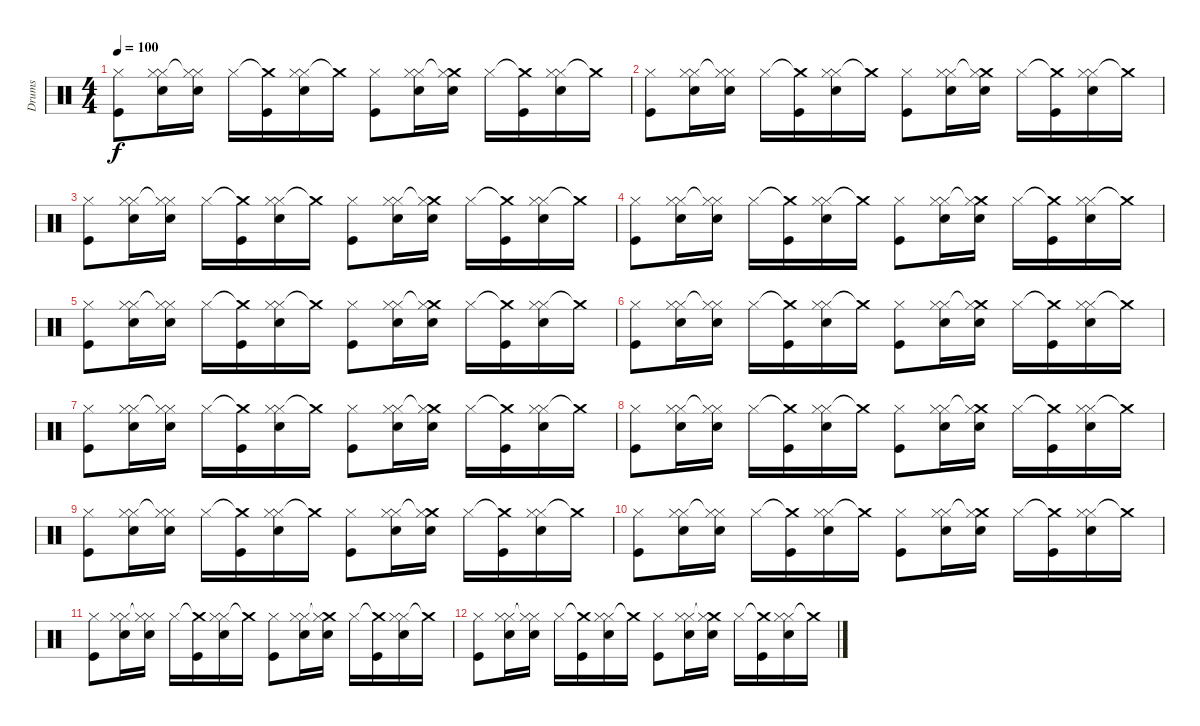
\track ("Drums" "Drums") {instrument percussion}
\staff {score}
\articulation defaults
\ts (4 4)
\tempo 100
\clef neutral
\ks c
("Hi-Hat (closed)" "Kick (hit)").8{dy f} ("Hi-Hat (closed)" "Hi-Hat (closed)" "Snare (hit) 2").16 ("Hi-Hat (closed)"{t} "Hi-Hat (closed)" "Snare (hit) 2").16 "Hi-Hat (closed)".16 ("Crash medium (hit)"{t} "Kick (hit)").16 ("Hi-Hat (closed)" "Hi-Hat (closed)" "Snare (hit) 2").16 "Crash medium (hit)"{t}.16 ("Hi-Hat (closed)" "Kick (hit)").8 ("Hi-Hat (closed)" "Hi-Hat (closed)" "Snare (hit) 2").16 ("Crash medium (hit)"{t} "Hi-Hat (closed)" "Snare (hit) 2").16 "Hi-Hat (closed)".16 ("Crash medium (hit)"{t} "Kick (hit)").16 ("Hi-Hat (closed)" "Hi-Hat (closed)" "Snare (hit) 2").16 "Crash medium (hit)"{t}.16 |
("Hi-Hat (closed)" "Kick (hit)").8 ("Hi-Hat (closed)" "Hi-Hat (closed)" "Snare (hit) 2").16 ("Hi-Hat (closed)"{t} "Hi-Hat (closed)" "Snare (hit) 2").16 "Hi-Hat (closed)".16 ("Crash medium (hit)"{t} "Kick (hit)").16 ("Hi-Hat (closed)" "Hi-Hat (closed)" "Snare (hit) 2").16 "Crash medium (hit)"{t}.16 ("Hi-Hat (closed)" "Kick (hit)").8 ("Hi-Hat (closed)" "Hi-Hat (closed)" "Snare (hit) 2").16 ("Crash medium (hit)"{t} "Hi-Hat (closed)" "Snare (hit) 2").16 "Hi-Hat (closed)".16 ("Crash medium (hit)"{t} "Kick (hit)").16 ("Hi-Hat (closed)" "Hi-Hat (closed)" "Snare (hit) 2").16 "Crash medium (hit)"{t}.16 |
("Hi-Hat (closed)" "Kick (hit)").8 ("Hi-Hat (closed)" "Hi-Hat (closed)" "Snare (hit) 2").16 ("Hi-Hat (closed)"{t} "Hi-Hat (closed)" "Snare (hit) 2").16 "Hi-Hat (closed)".16 ("Crash medium (hit)"{t} "Kick (hit)").16 ("Hi-Hat (closed)" "Hi-Hat (closed)" "Snare (hit) 2").16 "Crash medium (hit)"{t}.16 ("Hi-Hat (closed)" "Kick (hit)").8 ("Hi-Hat (closed)" "Hi-Hat (closed)" "Snare (hit) 2").16 ("Crash medium (hit)"{t} "Hi-Hat (closed)" "Snare (hit) 2").16 "Hi-Hat (closed)".16 ("Crash medium (hit)"{t} "Kick (hit)").16 ("Hi-Hat (closed)" "Hi-Hat (closed)" "Snare (hit) 2").16 "Crash medium (hit)"{t}.16 |
("Hi-Hat (closed)" "Kick (hit)").8 ("Hi-Hat (closed)" "Hi-Hat (closed)" "Snare (hit) 2").16 ("Hi-Hat (closed)"{t} "Hi-Hat (closed)" "Snare (hit) 2").16 "Hi-Hat (closed)".16 ("Crash medium (hit)"{t} "Kick (hit)").16 ("Hi-Hat (closed)" "Hi-Hat (closed)" "Snare (hit) 2").16 "Crash medium (hit)"{t}.16 ("Hi-Hat (closed)" "Kick (hit)").8 ("Hi-Hat (closed)" "Hi-Hat (closed)" "Snare (hit) 2").16 ("Crash medium (hit)"{t} "Hi-Hat (closed)" "Snare (hit) 2").16 "Hi-Hat (closed)".16 ("Crash medium (hit)"{t} "Kick (hit)").16 ("Hi-Hat (closed)" "Hi-Hat (closed)" "Snare (hit) 2").16 "Crash medium (hit)"{t}.16 |
("Hi-Hat (closed)" "Kick (hit)").8 ("Hi-Hat (closed)" "Hi-Hat (closed)" "Snare (hit) 2").16 ("Hi-Hat (closed)"{t} "Hi-Hat (closed)" "Snare (hit) 2").16 "Hi-Hat (closed)".16 ("Crash medium (hit)"{t} "Kick (hit)").16 ("Hi-Hat (closed)" "Hi-Hat (closed)" "Snare (hit) 2").16 "Crash medium (hit)"{t}.16 ("Hi-Hat (closed)" "Kick (hit)").8 ("Hi-Hat (closed)" "Hi-Hat (closed)" "Snare (hit) 2").16 ("Crash medium (hit)"{t} "Hi-Hat (closed)" "Snare (hit) 2").16 "Hi-Hat (closed)".16 ("Crash medium (hit)"{t} "Kick (hit)").16 ("Hi-Hat (closed)" "Hi-Hat (closed)" "Snare (hit) 2").16 "Crash medium (hit)"{t}.16 |
("Hi-Hat (closed)" "Kick (hit)").8 ("Hi-Hat (closed)" "Hi-Hat (closed)" "Snare (hit) 2").16 ("Hi-Hat (closed)"{t} "Hi-Hat (closed)" "Snare (hit) 2").16 "Hi-Hat (closed)".16 ("Crash medium (hit)"{t} "Kick (hit)").16 ("Hi-Hat (closed)" "Hi-Hat (closed)" "Snare (hit) 2").16 "Crash medium (hit)"{t}.16 ("Hi-Hat (closed)" "Kick (hit)").8 ("Hi-Hat (closed)" "Hi-Hat (closed)" "Snare (hit) 2").16 ("Crash medium (hit)"{t} "Hi-Hat (closed)" "Snare (hit) 2").16 "Hi-Hat (closed)".16 ("Crash medium (hit)"{t} "Kick (hit)").16 ("Hi-Hat (closed)" "Hi-Hat (closed)" "Snare (hit) 2").16 "Crash medium (hit)"{t}.16 |
("Hi-Hat (closed)" "Kick (hit)").8 ("Hi-Hat (closed)" "Hi-Hat (closed)" "Snare (hit) 2").16 ("Hi-Hat (closed)"{t} "Hi-Hat (closed)" "Snare (hit) 2").16 "Hi-Hat (closed)".16 ("Crash medium (hit)"{t} "Kick (hit)").16 ("Hi-Hat (closed)" "Hi-Hat (closed)" "Snare (hit) 2").16 "Crash medium (hit)"{t}.16 ("Hi-Hat (closed)" "Kick (hit)").8 ("Hi-Hat (closed)" "Hi-Hat (closed)" "Snare (hit) 2").16 ("Crash medium (hit)"{t} "Hi-Hat (closed)" "Snare (hit) 2").16 "Hi-Hat (closed)".16 ("Crash medium (hit)"{t} "Kick (hit)").16 ("Hi-Hat (closed)" "Hi-Hat (closed)" "Snare (hit) 2").16 "Crash medium (hit)"{t}.16 |
("Hi-Hat (closed)" "Kick (hit)").8 ("Hi-Hat (closed)" "Hi-Hat (closed)" "Snare (hit) 2").16 ("Hi-Hat (closed)"{t} "Hi-Hat (closed)" "Snare (hit) 2").16 "Hi-Hat (closed)".16 ("Crash medium (hit)"{t} "Kick (hit)").16 ("Hi-Hat (closed)" "Hi-Hat (closed)" "Snare (hit) 2").16 "Crash medium (hit)"{t}.16 ("Hi-Hat (closed)" "Kick (hit)").8 ("Hi-Hat (closed)" "Hi-Hat (closed)" "Snare (hit) 2").16 ("Crash medium (hit)"{t} "Hi-Hat (closed)" "Snare (hit) 2").16 "Hi-Hat (closed)".16 ("Crash medium (hit)"{t} "Kick (hit)").16 ("Hi-Hat (closed)" "Hi-Hat (closed)" "Snare (hit) 2").16 "Crash medium (hit)"{t}.16 |
("Hi-Hat (closed)" "Kick (hit)").8 ("Hi-Hat (closed)" "Hi-Hat (closed)" "Snare (hit) 2").16 ("Hi-Hat (closed)"{t} "Hi-Hat (closed)" "Snare (hit) 2").16 "Hi-Hat (closed)".16 ("Crash medium (hit)"{t} "Kick (hit)").16 ("Hi-Hat (closed)" "Hi-Hat (closed)" "Snare (hit) 2").16 "Crash medium (hit)"{t}.16 ("Hi-Hat (closed)" "Kick (hit)").8 ("Hi-Hat (closed)" "Hi-Hat (closed)" "Snare (hit) 2").16 ("Crash medium (hit)"{t} "Hi-Hat (closed)" "Snare (hit) 2").16 "Hi-Hat (closed)".16 ("Crash medium (hit)"{t} "Kick (hit)").16 ("Hi-Hat (closed)" "Hi-Hat (closed)" "Snare (hit) 2").16 "Crash medium (hit)"{t}.16 |
("Hi-Hat (closed)" "Kick (hit)").8 ("Hi-Hat (closed)" "Hi-Hat (closed)" "Snare (hit) 2").16 ("Hi-Hat (closed)"{t} "Hi-Hat (closed)" "Snare (hit) 2").16 "Hi-Hat (closed)".16 ("Crash medium (hit)"{t} "Kick (hit)").16 ("Hi-Hat (closed)" "Hi-Hat (closed)" "Snare (hit) 2").16 "Crash medium (hit)"{t}.16 ("Hi-Hat (closed)" "Kick (hit)").8 ("Hi-Hat (closed)" "Hi-Hat (closed)" "Snare (hit) 2").16 ("Crash medium (hit)"{t} "Hi-Hat (closed)" "Snare (hit) 2").16 "Hi-Hat (closed)".16 ("Crash medium (hit)"{t} "Kick (hit)").16 ("Hi-Hat (closed)" "Hi-Hat (closed)" "Snare (hit) 2").16 "Crash medium (hit)"{t}.16 |
("Hi-Hat (closed)" "Kick (hit)").8 ("Hi-Hat (closed)" "Hi-Hat (closed)" "Snare (hit) 2").16 ("Hi-Hat (closed)"{t} "Hi-Hat (closed)" "Snare (hit) 2").16 "Hi-Hat (closed)".16 ("Crash medium (hit)"{t} "Kick (hit)").16 ("Hi-Hat (closed)" "Hi-Hat (closed)" "Snare (hit) 2").16 "Crash medium (hit)"{t}.16 ("Hi-Hat (closed)" "Kick (hit)").8 ("Hi-Hat (closed)" "Hi-Hat (closed)" "Snare (hit) 2").16 ("Crash medium (hit)"{t} "Hi-Hat (closed)" "Snare (hit) 2").16 "Hi-Hat (closed)".16 ("Crash medium (hit)"{t} "Kick (hit)").16 ("Hi-Hat (closed)" "Hi-Hat (closed)" "Snare (hit) 2").16 "Crash medium (hit)"{t}.16 |
("Hi-Hat (closed)" "Kick (hit)").8 ("Hi-Hat (closed)" "Hi-Hat (closed)" "Snare (hit) 2").16 ("Hi-Hat (closed)"{t} "Hi-Hat (closed)" "Snare (hit) 2").16 "Hi-Hat (closed)".16 ("Crash medium (hit)"{t} "Kick (hit)").16 ("Hi-Hat (closed)" "Hi-Hat (closed)" "Snare (hit) 2").16 "Crash medium (hit)"{t}.16 ("Hi-Hat (closed)" "Kick (hit)").8 ("Hi-Hat (closed)" "Hi-Hat (closed)" "Snare (hit) 2").16 ("Crash medium (hit)"{t} "Hi-Hat (closed)" "Snare (hit) 2").16 "Hi-Hat (closed)".16 ("Crash medium (hit)"{t} "Kick (hit)").16 ("Hi-Hat (closed)" "Hi-Hat (closed)" "Snare (hit) 2").16 "Crash medium (hit)"{t}.16
